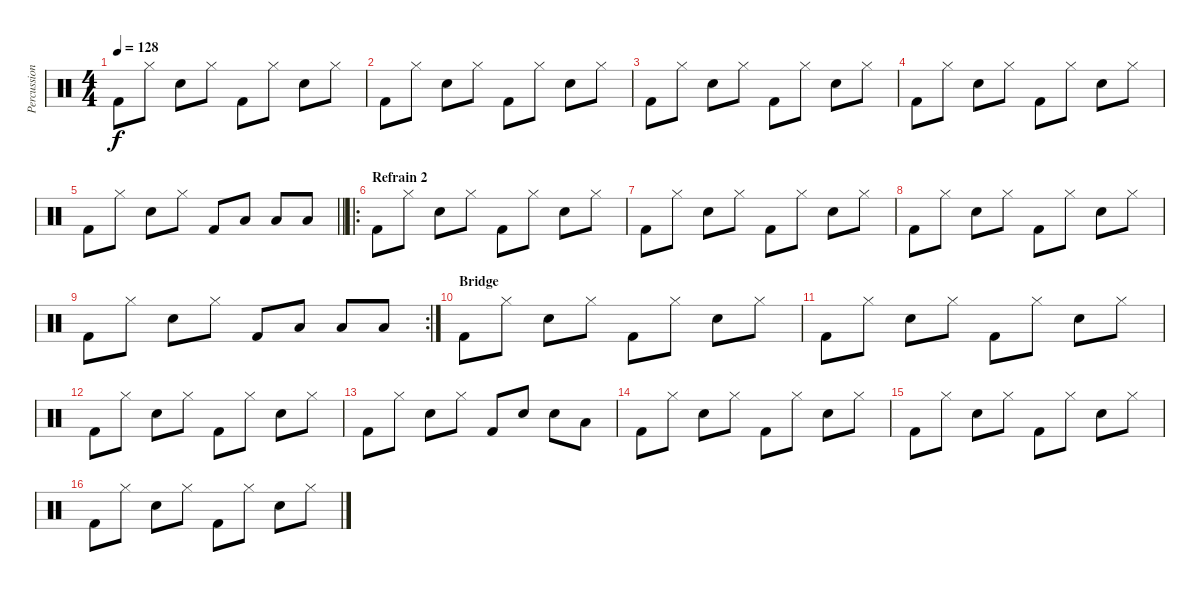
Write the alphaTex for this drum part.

\track ("Percussions" "Percussion") {instrument percussion}
\staff {score}
\articulation defaults
\ts (4 4)
\tempo 128
\clef neutral
\ks c "Kick (hit) 2".8{dy f} "Hi-Hat (closed)".8 "Electric Snare (hit)".8 "Hi-Hat (closed)".8 "Kick (hit) 2".8 "Hi-Hat (closed)".8 "Electric Snare (hit)".8 "Hi-Hat (closed)".8
|
"Kick (hit) 2".8 "Hi-Hat (closed)".8 "Electric Snare (hit)".8 "Hi-Hat (closed)".8 "Kick (hit) 2".8 "Hi-Hat (closed)".8 "Electric Snare (hit)".8 "Hi-Hat (closed)".8 |
"Kick (hit) 2".8 "Hi-Hat (closed)".8 "Electric Snare (hit)".8 "Hi-Hat (closed)".8 "Kick (hit) 2".8 "Hi-Hat (closed)".8 "Electric Snare (hit)".8 "Hi-Hat (closed)".8 |
"Kick (hit) 2".8 "Hi-Hat (closed)".8 "Electric Snare (hit)".8 "Hi-Hat (closed)".8 "Kick (hit) 2".8 "Hi-Hat (closed)".8 "Electric Snare (hit)".8 "Hi-Hat (closed)".8 |
\barLineRight lightlight "Kick (hit) 2".8 "Hi-Hat (closed)".8 "Electric Snare (hit)".8 "Hi-Hat (closed)".8 "Kick (hit) 2".8 "Low Tom (hit)".8 "Low Tom (hit)".8 "Low Floor Tom (hit)".8
|
\ro
\section ("" "Refrain 2")
"Kick (hit) 2".8 "Hi-Hat (closed)".8 "Electric Snare (hit)".8 "Hi-Hat (closed)".8 "Kick (hit) 2".8 "Hi-Hat (closed)".8 "Electric Snare (hit)".8 "Hi-Hat (closed)".8 |
"Kick (hit) 2".8 "Hi-Hat (closed)".8 "Electric Snare (hit)".8 "Hi-Hat (closed)".8 "Kick (hit) 2".8 "Hi-Hat (closed)".8 "Electric Snare (hit)".8 "Hi-Hat (closed)".8 |
"Kick (hit) 2".8 "Hi-Hat (closed)".8 "Electric Snare (hit)".8 "Hi-Hat (closed)".8 "Kick (hit) 2".8 "Hi-Hat (closed)".8 "Electric Snare (hit)".8 "Hi-Hat (closed)".8 |
\rc 2 "Kick (hit) 2".8 "Hi-Hat (closed)".8 "Electric Snare (hit)".8 "Hi-Hat (closed)".8 "Kick (hit) 2".8 "Low Tom (hit)".8 "Low Tom (hit)".8 "Low Floor Tom (hit)".8
|
\section ("" "Bridge")
"Kick (hit) 2".8 "Hi-Hat (closed)".8 "Electric Snare (hit)".8 "Hi-Hat (closed)".8 "Kick (hit) 2".8 "Hi-Hat (closed)".8 "Electric Snare (hit)".8 "Hi-Hat (closed)".8 |
"Kick (hit) 2".8 "Hi-Hat (closed)".8 "Electric Snare (hit)".8 "Hi-Hat (closed)".8 "Kick (hit) 2".8 "Hi-Hat (closed)".8 "Electric Snare (hit)".8 "Hi-Hat (closed)".8 |
"Kick (hit) 2".8 "Hi-Hat (closed)".8 "Electric Snare (hit)".8 "Hi-Hat (closed)".8 "Kick (hit) 2".8 "Hi-Hat (closed)".8 "Electric Snare (hit)".8 "Hi-Hat (closed)".8 |
"Kick (hit) 2".8 "Hi-Hat (closed)".8 "Electric Snare (hit)".8 "Hi-Hat (closed)".8 "Kick (hit) 2".8 "Electric Snare (hit)".8 "Electric Snare (hit)".8 "Low Tom (hit)".8 |
"Kick (hit) 2".8 "Hi-Hat (closed)".8 "Electric Snare (hit)".8 "Hi-Hat (closed)".8 "Kick (hit) 2".8 "Hi-Hat (closed)".8 "Electric Snare (hit)".8 "Hi-Hat (closed)".8 |
"Kick (hit) 2".8 "Hi-Hat (closed)".8 "Electric Snare (hit)".8 "Hi-Hat (closed)".8 "Kick (hit) 2".8 "Hi-Hat (closed)".8 "Electric Snare (hit)".8 "Hi-Hat (closed)".8 |
"Kick (hit) 2".8 "Hi-Hat (closed)".8 "Electric Snare (hit)".8 "Hi-Hat (closed)".8 "Kick (hit) 2".8 "Hi-Hat (closed)".8 "Electric Snare (hit)".8 "Hi-Hat (closed)".8
